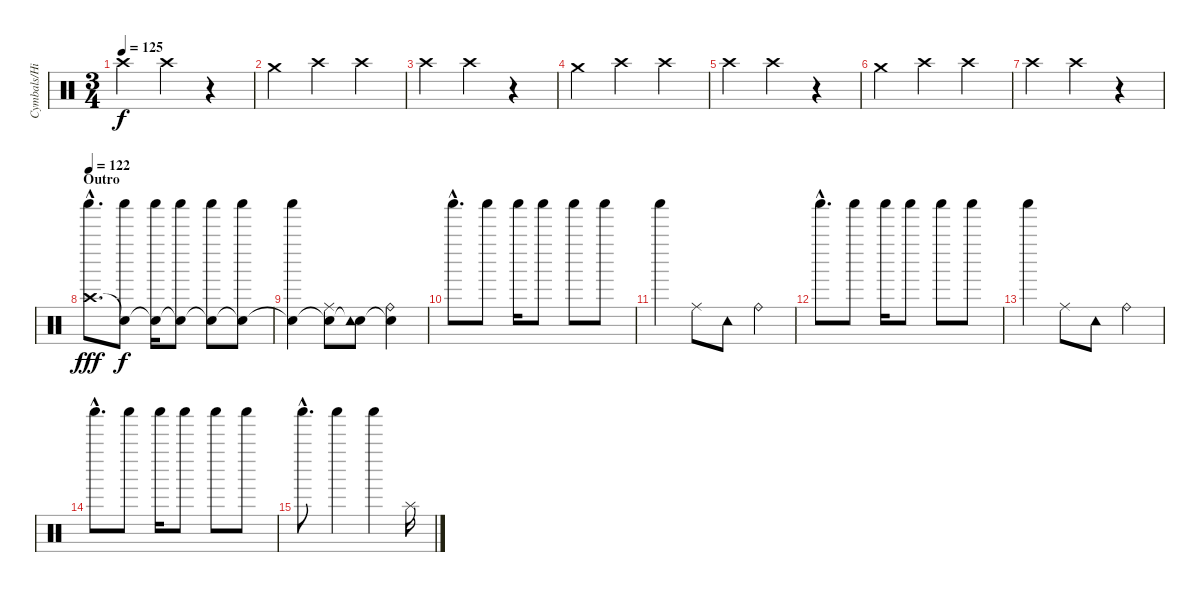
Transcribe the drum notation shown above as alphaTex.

\track ("Cymbals/Hi-hat" "Cymbals/Hi") {instrument percussion}
\staff {score}
\articulation defaults
\ts (3 4)
\tempo 125
\clef neutral
\ks c "Crash high (hit)".4{dy f} "Crash high (hit)".4
r.4 |
"Crash medium (hit)".4 "Crash high (hit)".4 "Crash high (hit)".4 |
"Crash high (hit)".4 "Crash high (hit)".4 r.4 |
"Crash medium (hit)".4 "Crash high (hit)".4 "Crash high (hit)".4 |
"Crash high (hit)".4 "Crash high (hit)".4 r.4 |
"Crash medium (hit)".4 "Crash high (hit)".4 "Crash high (hit)".4 |
"Crash high (hit)".4 "Crash high (hit)".4 r.4 |
\section ("" "Outro")
\tempo 122
("Crash high (hit)"{hac} "Shaker (hit)"{hac}).8{d dy fff volume 11} ("Snare (hit)"{t} "Shaker (hit)").8{dy f volume 9} ("Snare (hit)"{t} "Shaker (hit)").16 ("Snare (hit)"{t} "Shaker (hit)").8 ("Snare (hit)"{t} "Shaker (hit)").8 ("Snare (hit)"{t} "Shaker (hit)").8 |
("Snare (hit)"{t} "Shaker (hit)").4 ("Snare (hit)"{t} "Ride (middle)").8 ("Snare (hit)"{t} "Tambourine (hit)").8 ("Snare (hit)"{t} "Ride (bell)").4 |
"Shaker (hit)"{hac}.8{d} "Shaker (hit)".8 "Shaker (hit)".16 "Shaker (hit)".8 "Shaker (hit)".8 "Shaker (hit)".8 |
"Shaker (hit)".4 "Ride (middle)".8 "Tambourine (hit)".8 "Ride (bell)".4 |
"Shaker (hit)"{hac}.8{d} "Shaker (hit)".8 "Shaker (hit)".16 "Shaker (hit)".8 "Shaker (hit)".8 "Shaker (hit)".8 |
"Shaker (hit)".4 "Ride (middle)".8 "Tambourine (hit)".8 "Ride (bell)".4 |
"Shaker (hit)"{hac}.8{d} "Shaker (hit)".8 "Shaker (hit)".16 "Shaker (hit)".8 "Shaker (hit)".8 "Shaker (hit)".8 |
"Shaker (hit)"{hac}.8{d} "Shaker (hit)".4 "Shaker (hit)".4 "Splash (hit)".16
